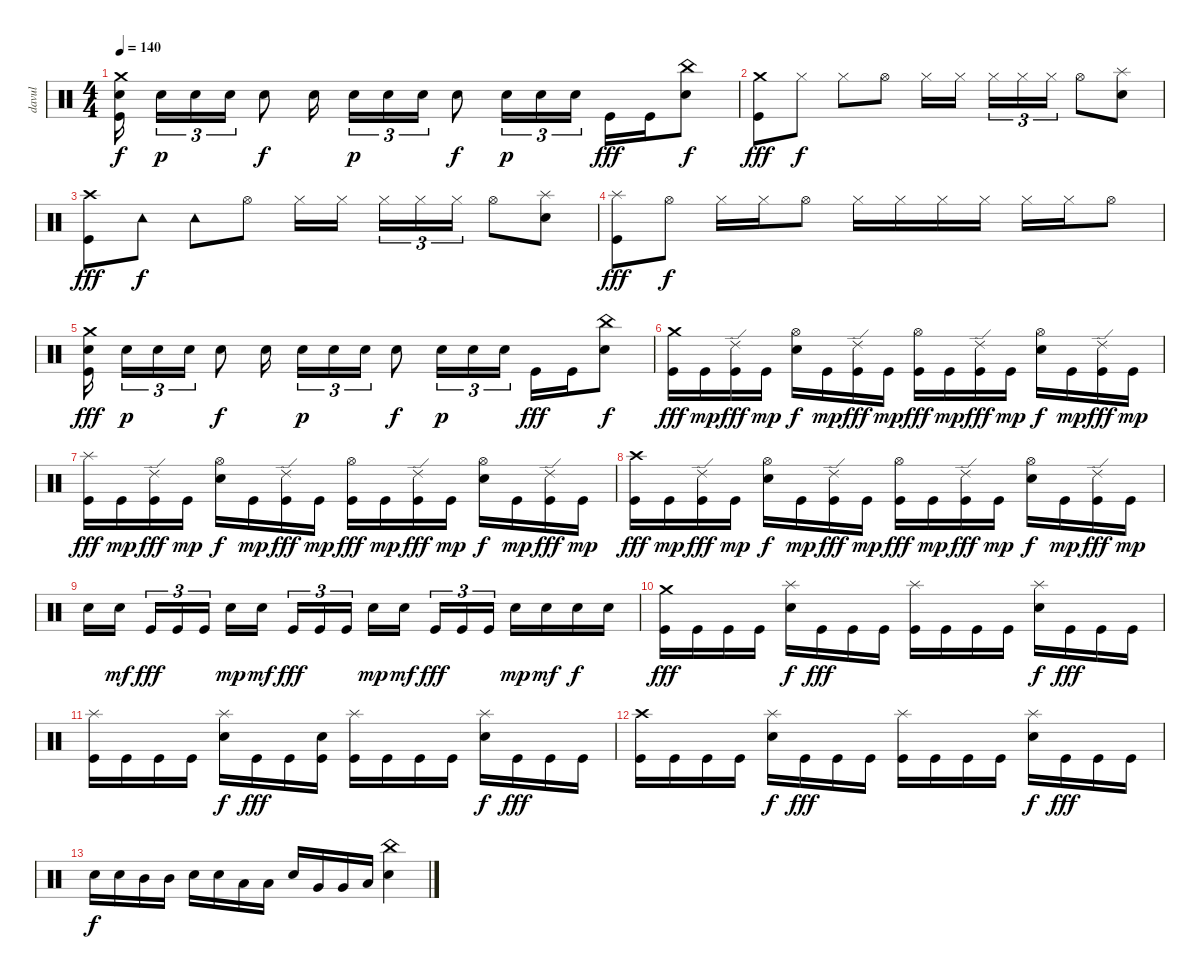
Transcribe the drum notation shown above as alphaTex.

\track ("davul" "davul") {instrument percussion}
\staff {score}
\articulation defaults
\ts (4 4)
\tempo 140
\clef neutral
\ks c
("Electric Snare (hit)" "Kick (hit)" "Crash medium (hit)").16{dy f} "Electric Snare (hit)".16{tu (3 2) dy p} "Electric Snare (hit)".16{tu (3 2)} "Electric Snare (hit)".16{tu (3 2)} "Electric Snare (hit)".8{dy f} "Electric Snare (hit)".16 "Electric Snare (hit)".16{tu (3 2) dy p} "Electric Snare (hit)".16{tu (3 2)} "Electric Snare (hit)".16{tu (3 2)} "Electric Snare (hit)".8{dy f} "Electric Snare (hit)".16{tu (3 2) dy p} "Electric Snare (hit)".16{tu (3 2)} "Electric Snare (hit)".16{tu (3 2)} "Kick (hit)".16{dy fff} "Kick (hit)".16 ("Electric Snare (hit)" "China (hit)").8{dy f} |
("Kick (hit)" "Crash medium (hit)").8{dy fff} "Hi-Hat (closed)".8{dy f} "Hi-Hat (closed)".8 "Hi-Hat (open)".8 "Hi-Hat (closed)".16 "Hi-Hat (closed)".16 "Hi-Hat (closed)".16{tu (3 2)} "Hi-Hat (closed)".16{tu (3 2)} "Hi-Hat (closed)".16{tu (3 2)} "Hi-Hat (open)".8 ("Electric Snare (hit)" "Splash (hit)").8 |
("Kick (hit)" "Crash high (hit)").8{dy fff} "Tambourine (hit)".8{dy f} "Tambourine (hit)".8 "Hi-Hat (open)".8 "Hi-Hat (closed)".16 "Hi-Hat (closed)".16 "Hi-Hat (closed)".16{tu (3 2)} "Hi-Hat (closed)".16{tu (3 2)} "Hi-Hat (closed)".16{tu (3 2)} "Hi-Hat (open)".8 ("Electric Snare (hit)" "Splash (hit)").8 |
("Kick (hit)" "Splash (hit)").8{dy fff} "Hi-Hat (open)".8{dy f} "Hi-Hat (closed)".16 "Hi-Hat (closed)".16 "Hi-Hat (open)".8 "Hi-Hat (closed)".16 "Hi-Hat (closed)".16 "Hi-Hat (closed)".16 "Hi-Hat (closed)".16 "Hi-Hat (closed)".16 "Hi-Hat (closed)".16 "Hi-Hat (open)".8 |
("Electric Snare (hit)" "Kick (hit)" "Crash medium (hit)").16{dy fff} "Electric Snare (hit)".16{tu (3 2) dy p} "Electric Snare (hit)".16{tu (3 2)} "Electric Snare (hit)".16{tu (3 2)} "Electric Snare (hit)".8{dy f} "Electric Snare (hit)".16 "Electric Snare (hit)".16{tu (3 2) dy p} "Electric Snare (hit)".16{tu (3 2)} "Electric Snare (hit)".16{tu (3 2)} "Electric Snare (hit)".8{dy f} "Electric Snare (hit)".16{tu (3 2) dy p} "Electric Snare (hit)".16{tu (3 2)} "Electric Snare (hit)".16{tu (3 2)} "Kick (hit)".16{dy fff} "Kick (hit)".16 ("Electric Snare (hit)" "China (hit)").8{dy f} |
("Kick (hit)" "Crash medium (hit)").16{dy fff} "Kick (hit)".16{dy mp} ("Kick (hit)" "Ride (edge) 2").16{dy fff} "Kick (hit)".16{dy mp} ("Electric Snare (hit)" "Hi-Hat (open)").16{dy f} "Kick (hit)".16{dy mp} ("Kick (hit)" "Ride (edge) 2").16{dy fff} "Kick (hit)".16{dy mp} ("Kick (hit)" "Hi-Hat (open)").16{dy fff} "Kick (hit)".16{dy mp} ("Kick (hit)" "Ride (edge) 2").16{dy fff} "Kick (hit)".16{dy mp} ("Electric Snare (hit)" "Hi-Hat (open)").16{dy f} "Kick (hit)".16{dy mp} ("Kick (hit)" "Ride (edge) 2").16{dy fff} "Kick (hit)".16{dy mp} |
("Kick (hit)" "Splash (hit)").16{dy fff} "Kick (hit)".16{dy mp} ("Kick (hit)" "Ride (edge) 2").16{dy fff} "Kick (hit)".16{dy mp} ("Electric Snare (hit)" "Hi-Hat (open)").16{dy f} "Kick (hit)".16{dy mp} ("Kick (hit)" "Ride (edge) 2").16{dy fff} "Kick (hit)".16{dy mp} ("Kick (hit)" "Hi-Hat (open)").16{dy fff} "Kick (hit)".16{dy mp} ("Kick (hit)" "Ride (edge) 2").16{dy fff} "Kick (hit)".16{dy mp} ("Electric Snare (hit)" "Hi-Hat (open)").16{dy f} "Kick (hit)".16{dy mp} ("Kick (hit)" "Ride (edge) 2").16{dy fff} "Kick (hit)".16{dy mp} |
("Kick (hit)" "Crash high (hit)").16{dy fff} "Kick (hit)".16{dy mp} ("Kick (hit)" "Ride (edge) 2").16{dy fff} "Kick (hit)".16{dy mp} ("Electric Snare (hit)" "Hi-Hat (open)").16{dy f} "Kick (hit)".16{dy mp} ("Kick (hit)" "Ride (edge) 2").16{dy fff} "Kick (hit)".16{dy mp} ("Kick (hit)" "Hi-Hat (open)").16{dy fff} "Kick (hit)".16{dy mp} ("Kick (hit)" "Ride (edge) 2").16{dy fff} "Kick (hit)".16{dy mp} ("Electric Snare (hit)" "Hi-Hat (open)").16{dy f} "Kick (hit)".16{dy mp} ("Kick (hit)" "Ride (edge) 2").16{dy fff} "Kick (hit)".16{dy mp} |
"Electric Snare (hit)".16 "Electric Snare (hit)".16{dy mf} "Kick (hit)".16{tu (3 2) dy fff} "Kick (hit)".16{tu (3 2)} "Kick (hit)".16{tu (3 2)} "Electric Snare (hit)".16{dy mp} "Electric Snare (hit)".16{dy mf} "Kick (hit)".16{tu (3 2) dy fff} "Kick (hit)".16{tu (3 2)} "Kick (hit)".16{tu (3 2)} "Electric Snare (hit)".16{dy mp} "Electric Snare (hit)".16{dy mf} "Kick (hit)".16{tu (3 2) dy fff} "Kick (hit)".16{tu (3 2)} "Kick (hit)".16{tu (3 2)} "Electric Snare (hit)".16{dy mp} "Electric Snare (hit)".16{dy mf} "Electric Snare (hit)".16{dy f} "Electric Snare (hit)".16 |
("Kick (hit)" "Crash medium (hit)").16{dy fff} "Kick (hit)".16 "Kick (hit)".16 "Kick (hit)".16 ("Electric Snare (hit)" "Splash (hit)").16{dy f} "Kick (hit)".16{dy fff} "Kick (hit)".16 "Kick (hit)".16 ("Kick (hit)" "Splash (hit)").16 "Kick (hit)".16 "Kick (hit)".16 "Kick (hit)".16 ("Electric Snare (hit)" "Splash (hit)").16{dy f} "Kick (hit)".16{dy fff} "Kick (hit)".16 "Kick (hit)".16 |
("Kick (hit)" "Splash (hit)").16 "Kick (hit)".16 "Kick (hit)".16 "Kick (hit)".16 ("Electric Snare (hit)" "Splash (hit)").16{dy f} "Kick (hit)".16{dy fff} "Kick (hit)".16 ("Kick (hit)" "Snare (hit)").16 ("Kick (hit)" "Splash (hit)").16 "Kick (hit)".16 "Kick (hit)".16 "Kick (hit)".16 ("Electric Snare (hit)" "Splash (hit)").16{dy f} "Kick (hit)".16{dy fff} "Kick (hit)".16 "Kick (hit)".16 |
("Kick (hit)" "Crash high (hit)").16 "Kick (hit)".16 "Kick (hit)".16 "Kick (hit)".16 ("Electric Snare (hit)" "Splash (hit)").16{dy f} "Kick (hit)".16{dy fff} "Kick (hit)".16 "Kick (hit)".16 ("Kick (hit)" "Splash (hit)").16 "Kick (hit)".16 "Kick (hit)".16 "Kick (hit)".16 ("Electric Snare (hit)" "Splash (hit)").16{dy f} "Kick (hit)".16{dy fff} "Kick (hit)".16 "Kick (hit)".16 |
"Electric Snare (hit)".16{dy f} "Electric Snare (hit)".16 "Mid Tom (hit)".16 "Mid Tom (hit)".16 "Electric Snare (hit)".16 "Electric Snare (hit)".16 "Low Tom (hit)".16 "Low Tom (hit)".16 "Electric Snare (hit)".16 "Very Low Tom (hit)".16 "Very Low Tom (hit)".16 "Low Floor Tom (hit)".16 ("Electric Snare (hit)" "China (hit)").4
